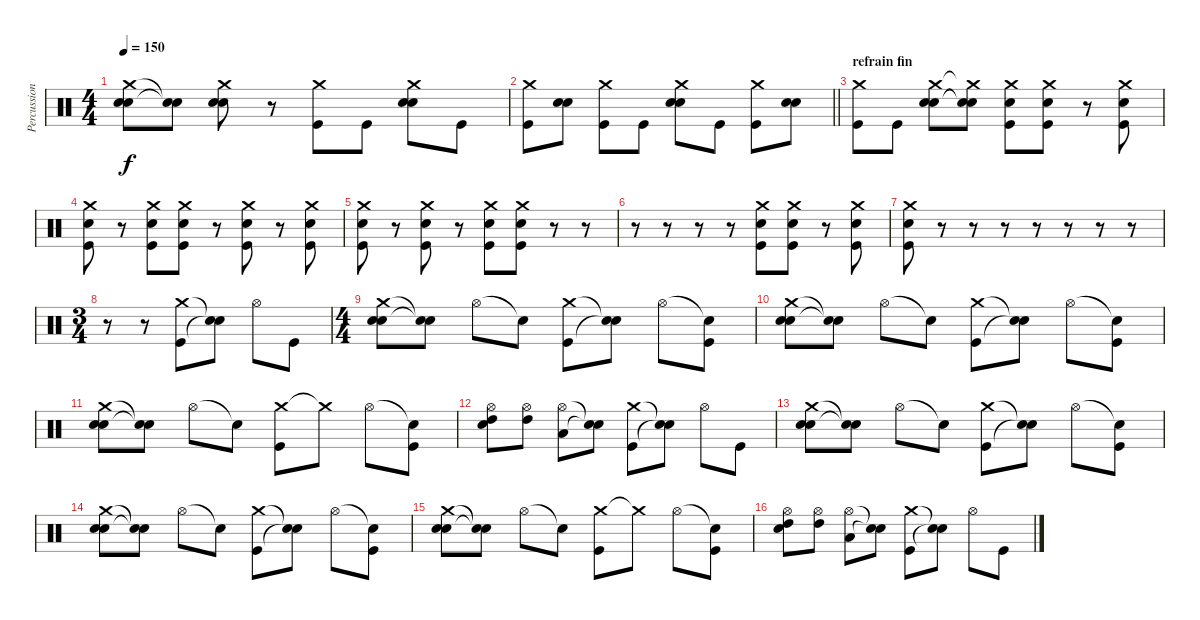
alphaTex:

\track ("Percussions" "Percussion") {instrument percussion}
\staff {score}
\articulation defaults
\ts (4 4)
\tempo 150
\clef neutral
\ks c
("Crash medium (hit)" "Electric Snare (hit)" "Electric Snare (hit)").8{dy f} ("Snare (hit)"{t} "Snare (hit)"{t}).8 ("Crash medium (hit)" "Electric Snare (hit)" "Electric Snare (hit)").8 r.8 ("Crash medium (hit)" "Kick (hit)").8 "Kick (hit)".8 ("Crash medium (hit)" "Electric Snare (hit)" "Electric Snare (hit)").8 "Kick (hit)".8 |
\barLineRight lightlight
("Crash medium (hit)" "Kick (hit)").8 ("Electric Snare (hit)" "Electric Snare (hit)").8 ("Crash medium (hit)" "Kick (hit)").8 "Kick (hit)".8 ("Crash medium (hit)" "Electric Snare (hit)" "Electric Snare (hit)").8 "Kick (hit)".8 ("Crash medium (hit)" "Kick (hit)").8 ("Electric Snare (hit)" "Electric Snare (hit)").8 |
\section ("" "refrain fin")
("Crash medium (hit)" "Kick (hit)").8 "Kick (hit)".8 ("Crash medium (hit)" "Electric Snare (hit)" "Electric Snare (hit)").8 ("Crash medium (hit)"{t} "Electric Snare (hit)"{t} "Electric Snare (hit)"{t}).8 ("Crash medium (hit)" "Electric Snare (hit)" "Kick (hit)").8 ("Crash medium (hit)" "Electric Snare (hit)" "Kick (hit)").8 r.8 ("Crash medium (hit)" "Electric Snare (hit)" "Kick (hit)").8 |
("Crash medium (hit)" "Electric Snare (hit)" "Kick (hit)").8 r.8 ("Crash medium (hit)" "Electric Snare (hit)" "Kick (hit)").8 ("Crash medium (hit)" "Electric Snare (hit)" "Kick (hit)").8 r.8 ("Crash medium (hit)" "Electric Snare (hit)" "Kick (hit)").8 r.8 ("Crash medium (hit)" "Electric Snare (hit)" "Kick (hit)").8 |
("Crash medium (hit)" "Electric Snare (hit)" "Kick (hit)").8 r.8 ("Crash medium (hit)" "Electric Snare (hit)" "Kick (hit)").8 r.8 ("Crash medium (hit)" "Electric Snare (hit)" "Kick (hit)").8 ("Crash medium (hit)" "Electric Snare (hit)" "Kick (hit)").8 r.8 r.8 |
r.8 r.8 r.8 r.8 ("Crash medium (hit)" "Electric Snare (hit)" "Kick (hit)").8 ("Crash medium (hit)" "Electric Snare (hit)" "Kick (hit)").8 r.8 ("Crash medium (hit)" "Electric Snare (hit)" "Kick (hit)").8 |
("Crash medium (hit)" "Electric Snare (hit)" "Kick (hit)").8 r.8 r.8 r.8 r.8 r.8 r.8 r.8 |
\ts (3 4)
r.8 r.8 ("Crash medium (hit)" "Kick (hit)").8 ("Snare (hit)"{t} "Snare (hit)"{t}).8 "Hi-Hat (open)".8 "Kick (hit)".8 |
\ts (4 4)
("Crash medium (hit)" "Electric Snare (hit)" "Electric Snare (hit)").8 ("Snare (hit)"{t} "Snare (hit)"{t}).8 "Hi-Hat (open)".8 "Snare (hit)"{t}.8 ("Crash medium (hit)" "Kick (hit)").8 ("Snare (hit)"{t} "Snare (hit)"{t}).8 "Hi-Hat (open)".8 ("Snare (hit)"{t} "Kick (hit)").8 |
("Crash medium (hit)" "Electric Snare (hit)" "Electric Snare (hit)").8 ("Snare (hit)"{t} "Snare (hit)"{t}).8 "Hi-Hat (open)".8 "Snare (hit)"{t}.8 ("Crash medium (hit)" "Kick (hit)").8 ("Snare (hit)"{t} "Snare (hit)"{t}).8 "Hi-Hat (open)".8 ("Snare (hit)"{t} "Kick (hit)").8 |
("Crash medium (hit)" "Electric Snare (hit)" "Electric Snare (hit)").8 ("Snare (hit)"{t} "Snare (hit)"{t}).8 "Hi-Hat (open)".8 "Snare (hit)"{t}.8 ("Crash medium (hit)" "Kick (hit)").8 "Crash medium (hit)"{t}.8 "Hi-Hat (open)".8 ("Snare (hit)"{t} "Kick (hit)").8 |
("Hi-Hat (open)" "High Tom (hit)" "Electric Snare (hit)").8{volume 12} ("Hi-Hat (open)" "High Tom (hit)").8 ("Hi-Hat (open)" "Low Floor Tom (hit)").8 ("Snare (hit)"{t} "Snare (hit)"{t}).8 ("Crash medium (hit)" "Kick (hit)").8{volume 16} ("Snare (hit)"{t} "Snare (hit)"{t}).8 "Hi-Hat (open)".8 "Kick (hit)".8 |
("Crash medium (hit)" "Electric Snare (hit)" "Electric Snare (hit)").8 ("Snare (hit)"{t} "Snare (hit)"{t}).8 "Hi-Hat (open)".8 "Snare (hit)"{t}.8 ("Crash medium (hit)" "Kick (hit)").8 ("Snare (hit)"{t} "Snare (hit)"{t}).8 "Hi-Hat (open)".8 ("Snare (hit)"{t} "Kick (hit)").8 |
("Crash medium (hit)" "Electric Snare (hit)" "Electric Snare (hit)").8 ("Snare (hit)"{t} "Snare (hit)"{t}).8 "Hi-Hat (open)".8 "Snare (hit)"{t}.8 ("Crash medium (hit)" "Kick (hit)").8 ("Snare (hit)"{t} "Snare (hit)"{t}).8 "Hi-Hat (open)".8 ("Snare (hit)"{t} "Kick (hit)").8 |
("Crash medium (hit)" "Electric Snare (hit)" "Electric Snare (hit)").8 ("Snare (hit)"{t} "Snare (hit)"{t}).8 "Hi-Hat (open)".8 "Snare (hit)"{t}.8 ("Crash medium (hit)" "Kick (hit)").8 "Crash medium (hit)"{t}.8 "Hi-Hat (open)".8 ("Snare (hit)"{t} "Kick (hit)").8 |
("Hi-Hat (open)" "High Tom (hit)" "Electric Snare (hit)").8{volume 12} ("Hi-Hat (open)" "High Tom (hit)").8 ("Hi-Hat (open)" "Low Floor Tom (hit)").8 ("Snare (hit)"{t} "Snare (hit)"{t}).8 ("Crash medium (hit)" "Kick (hit)").8{volume 16} ("Snare (hit)"{t} "Snare (hit)"{t}).8 "Hi-Hat (open)".8 "Kick (hit)".8
